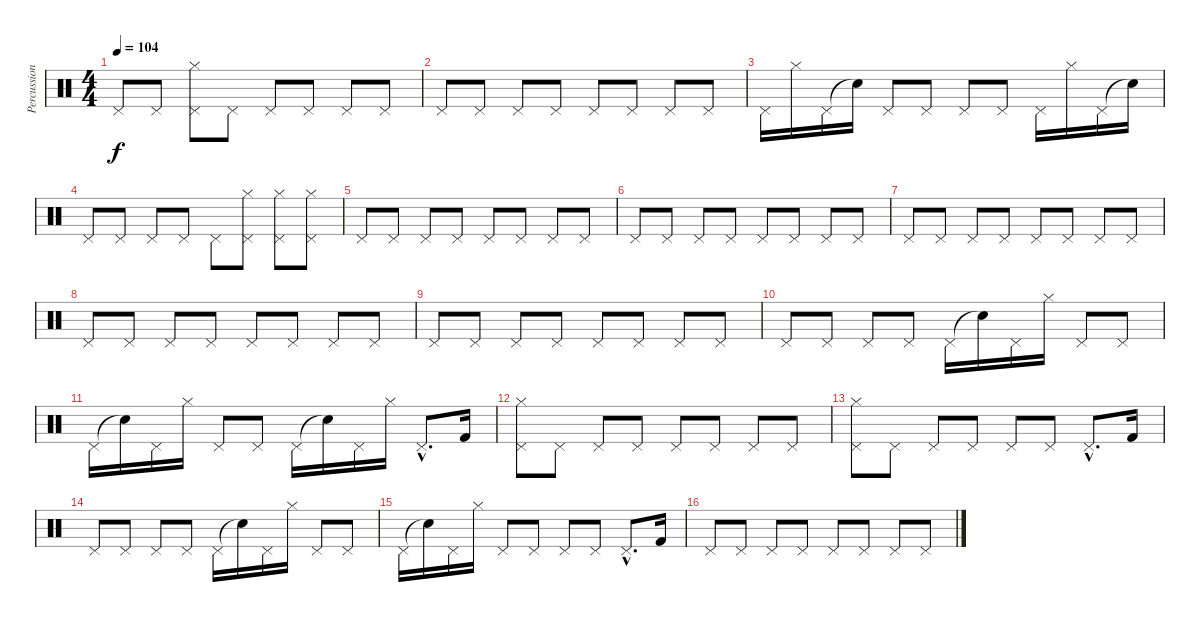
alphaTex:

\track ("Percussion" "Percussion") {instrument percussion}
\staff {score}
\articulation defaults
\ts (4 4)
\tempo 104
\clef neutral
\ks c "Pedal Hi-Hat (hit)".8{dy f} "Pedal Hi-Hat (hit)".8
("Hi-Hat (closed)" "Pedal Hi-Hat (hit)").8 "Pedal Hi-Hat (hit)".8 "Pedal Hi-Hat (hit)".8 "Pedal Hi-Hat (hit)".8 "Pedal Hi-Hat (hit)".8 "Pedal Hi-Hat (hit)".8 |
"Pedal Hi-Hat (hit)".8 "Pedal Hi-Hat (hit)".8 "Pedal Hi-Hat (hit)".8 "Pedal Hi-Hat (hit)".8 "Pedal Hi-Hat (hit)".8 "Pedal Hi-Hat (hit)".8 "Pedal Hi-Hat (hit)".8 "Pedal Hi-Hat (hit)".8 |
"Pedal Hi-Hat (hit)".16 "Hi-Hat (closed)".16 "Pedal Hi-Hat (hit)".16 "Snare (hit)"{t}.16 "Pedal Hi-Hat (hit)".8 "Pedal Hi-Hat (hit)".8 "Pedal Hi-Hat (hit)".8 "Pedal Hi-Hat (hit)".8 "Pedal Hi-Hat (hit)".16 "Hi-Hat (closed)".16 "Pedal Hi-Hat (hit)".16 "Snare (hit)"{t}.16 |
"Pedal Hi-Hat (hit)".8 "Pedal Hi-Hat (hit)".8 "Pedal Hi-Hat (hit)".8 "Pedal Hi-Hat (hit)".8 "Pedal Hi-Hat (hit)".8 ("Hi-Hat (closed)" "Pedal Hi-Hat (hit)").8 ("Hi-Hat (closed)" "Pedal Hi-Hat (hit)").8 ("Hi-Hat (closed)" "Pedal Hi-Hat (hit)").8 |
"Pedal Hi-Hat (hit)".8 "Pedal Hi-Hat (hit)".8 "Pedal Hi-Hat (hit)".8 "Pedal Hi-Hat (hit)".8 "Pedal Hi-Hat (hit)".8 "Pedal Hi-Hat (hit)".8 "Pedal Hi-Hat (hit)".8 "Pedal Hi-Hat (hit)".8 |
"Pedal Hi-Hat (hit)".8 "Pedal Hi-Hat (hit)".8 "Pedal Hi-Hat (hit)".8 "Pedal Hi-Hat (hit)".8 "Pedal Hi-Hat (hit)".8 "Pedal Hi-Hat (hit)".8 "Pedal Hi-Hat (hit)".8 "Pedal Hi-Hat (hit)".8 |
"Pedal Hi-Hat (hit)".8 "Pedal Hi-Hat (hit)".8 "Pedal Hi-Hat (hit)".8 "Pedal Hi-Hat (hit)".8 "Pedal Hi-Hat (hit)".8 "Pedal Hi-Hat (hit)".8 "Pedal Hi-Hat (hit)".8 "Pedal Hi-Hat (hit)".8 |
"Pedal Hi-Hat (hit)".8 "Pedal Hi-Hat (hit)".8 "Pedal Hi-Hat (hit)".8 "Pedal Hi-Hat (hit)".8 "Pedal Hi-Hat (hit)".8 "Pedal Hi-Hat (hit)".8 "Pedal Hi-Hat (hit)".8 "Pedal Hi-Hat (hit)".8 |
"Pedal Hi-Hat (hit)".8 "Pedal Hi-Hat (hit)".8 "Pedal Hi-Hat (hit)".8 "Pedal Hi-Hat (hit)".8 "Pedal Hi-Hat (hit)".8 "Pedal Hi-Hat (hit)".8 "Pedal Hi-Hat (hit)".8 "Pedal Hi-Hat (hit)".8 |
"Pedal Hi-Hat (hit)".8 "Pedal Hi-Hat (hit)".8 "Pedal Hi-Hat (hit)".8 "Pedal Hi-Hat (hit)".8 "Pedal Hi-Hat (hit)".16 "Snare (hit)"{t}.16 "Pedal Hi-Hat (hit)".16 "Hi-Hat (closed)".16 "Pedal Hi-Hat (hit)".8 "Pedal Hi-Hat (hit)".8 |
"Pedal Hi-Hat (hit)".16 "Snare (hit)"{t}.16 "Pedal Hi-Hat (hit)".16 "Hi-Hat (closed)".16 "Pedal Hi-Hat (hit)".8 "Pedal Hi-Hat (hit)".8 "Pedal Hi-Hat (hit)".16 "Snare (hit)"{t}.16 "Pedal Hi-Hat (hit)".16 "Hi-Hat (closed)".16 "Pedal Hi-Hat (hit)"{hac}.8{d} "Kick (hit) 2".16 |
("Hi-Hat (closed)" "Pedal Hi-Hat (hit)").8 "Pedal Hi-Hat (hit)".8 "Pedal Hi-Hat (hit)".8 "Pedal Hi-Hat (hit)".8 "Pedal Hi-Hat (hit)".8 "Pedal Hi-Hat (hit)".8 "Pedal Hi-Hat (hit)".8 "Pedal Hi-Hat (hit)".8 |
("Hi-Hat (closed)" "Pedal Hi-Hat (hit)").8 "Pedal Hi-Hat (hit)".8 "Pedal Hi-Hat (hit)".8 "Pedal Hi-Hat (hit)".8 "Pedal Hi-Hat (hit)".8 "Pedal Hi-Hat (hit)".8 "Pedal Hi-Hat (hit)"{hac}.8{d} "Kick (hit) 2".16 |
"Pedal Hi-Hat (hit)".8 "Pedal Hi-Hat (hit)".8 "Pedal Hi-Hat (hit)".8 "Pedal Hi-Hat (hit)".8 "Pedal Hi-Hat (hit)".16 "Snare (hit)"{t}.16 "Pedal Hi-Hat (hit)".16 "Hi-Hat (closed)".16 "Pedal Hi-Hat (hit)".8 "Pedal Hi-Hat (hit)".8 |
"Pedal Hi-Hat (hit)".16 "Snare (hit)"{t}.16 "Pedal Hi-Hat (hit)".16 "Hi-Hat (closed)".16 "Pedal Hi-Hat (hit)".8 "Pedal Hi-Hat (hit)".8 "Pedal Hi-Hat (hit)".8 "Pedal Hi-Hat (hit)".8 "Pedal Hi-Hat (hit)"{hac}.8{d} "Kick (hit) 2".16 |
"Pedal Hi-Hat (hit)".8 "Pedal Hi-Hat (hit)".8 "Pedal Hi-Hat (hit)".8 "Pedal Hi-Hat (hit)".8 "Pedal Hi-Hat (hit)".8 "Pedal Hi-Hat (hit)".8 "Pedal Hi-Hat (hit)".8 "Pedal Hi-Hat (hit)".8
